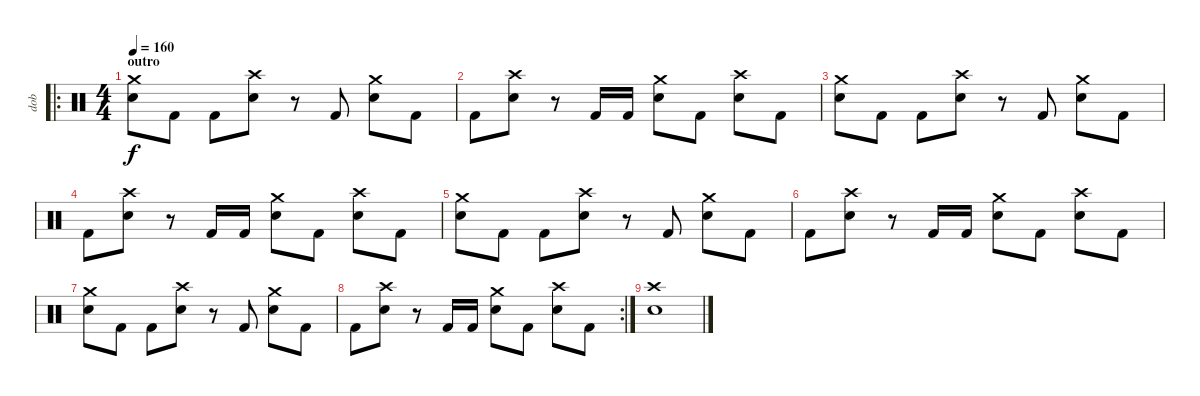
\track ("dob" "dob") {instrument percussion}
\staff {score}
\articulation defaults
\ro
\ts (4 4)
\section ("" "outro")
\tempo 160
\clef neutral
\ks c
("Crash medium (hit)" "Snare (hit) 2").8{dy f} "Kick (hit) 2".8 "Kick (hit) 2".8 ("Crash high (hit)" "Snare (hit) 2").8 r.8 "Kick (hit) 2".8 ("Crash medium (hit)" "Snare (hit) 2").8 "Kick (hit) 2".8 |
"Kick (hit) 2".8 ("Crash high (hit)" "Snare (hit) 2").8 r.8 "Kick (hit) 2".16 "Kick (hit) 2".16 ("Crash medium (hit)" "Snare (hit) 2").8 "Kick (hit) 2".8 ("Crash high (hit)" "Snare (hit) 2").8 "Kick (hit) 2".8 |
("Crash medium (hit)" "Snare (hit) 2").8 "Kick (hit) 2".8 "Kick (hit) 2".8 ("Crash high (hit)" "Snare (hit) 2").8 r.8 "Kick (hit) 2".8 ("Crash medium (hit)" "Snare (hit) 2").8 "Kick (hit) 2".8 |
"Kick (hit) 2".8 ("Crash high (hit)" "Snare (hit) 2").8 r.8 "Kick (hit) 2".16 "Kick (hit) 2".16 ("Crash medium (hit)" "Snare (hit) 2").8 "Kick (hit) 2".8 ("Crash high (hit)" "Snare (hit) 2").8 "Kick (hit) 2".8 |
("Crash medium (hit)" "Snare (hit) 2").8 "Kick (hit) 2".8 "Kick (hit) 2".8 ("Crash high (hit)" "Snare (hit) 2").8 r.8 "Kick (hit) 2".8 ("Crash medium (hit)" "Snare (hit) 2").8 "Kick (hit) 2".8 |
"Kick (hit) 2".8 ("Crash high (hit)" "Snare (hit) 2").8 r.8 "Kick (hit) 2".16 "Kick (hit) 2".16 ("Crash medium (hit)" "Snare (hit) 2").8 "Kick (hit) 2".8 ("Crash high (hit)" "Snare (hit) 2").8 "Kick (hit) 2".8 |
("Crash medium (hit)" "Snare (hit) 2").8 "Kick (hit) 2".8 "Kick (hit) 2".8 ("Crash high (hit)" "Snare (hit) 2").8 r.8 "Kick (hit) 2".8 ("Crash medium (hit)" "Snare (hit) 2").8 "Kick (hit) 2".8 |
\rc 2 "Kick (hit) 2".8
("Crash high (hit)" "Snare (hit) 2").8 r.8 "Kick (hit) 2".16 "Kick (hit) 2".16 ("Crash medium (hit)" "Snare (hit) 2").8 "Kick (hit) 2".8 ("Crash high (hit)" "Snare (hit) 2").8 "Kick (hit) 2".8 |
("Crash high (hit)" "Snare (hit) 2").1
